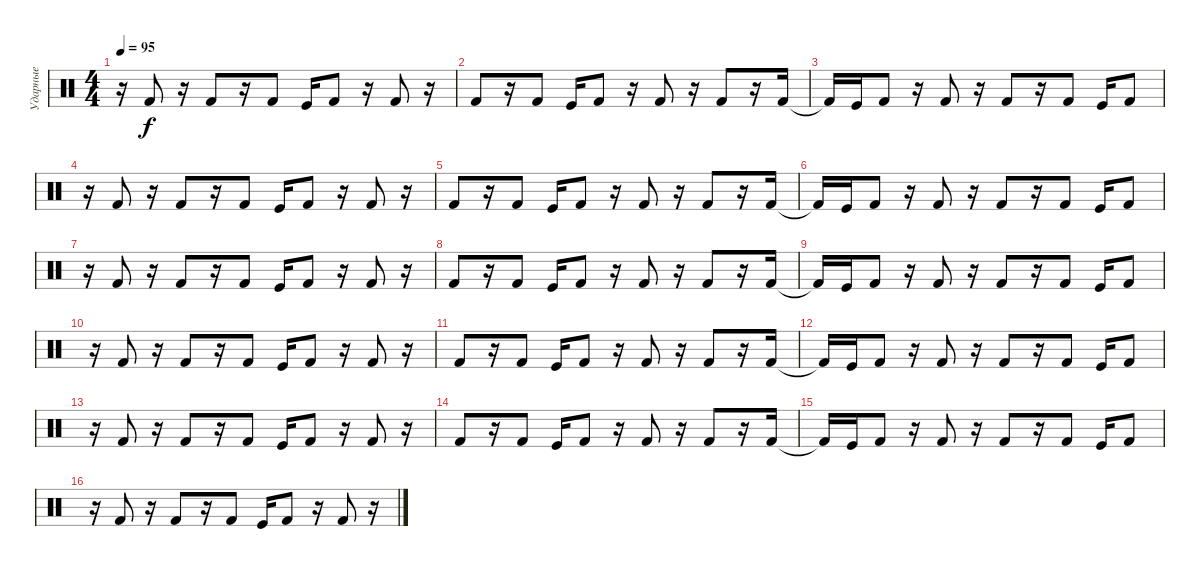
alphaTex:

\track ("Ударные" "Ударные") {instrument percussion}
\staff {score}
\articulation defaults
\ts (4 4)
\tempo 95
\clef neutral
\ks c
r.16{dy f} "Kick (hit) 2".8 r.16 "Kick (hit) 2".8 r.16 "Kick (hit) 2".8 "Kick (hit)".16 "Kick (hit) 2".8 r.16 "Kick (hit) 2".8 r.16 |
"Kick (hit) 2".8 r.16 "Kick (hit) 2".8 "Kick (hit)".16 "Kick (hit) 2".8 r.16 "Kick (hit) 2".8 r.16 "Kick (hit) 2".8 r.16 "Kick (hit) 2".16 |
"Kick (hit) 2"{t}.16 "Kick (hit)".16 "Kick (hit) 2".8 r.16 "Kick (hit) 2".8 r.16 "Kick (hit) 2".8 r.16 "Kick (hit) 2".8 "Kick (hit)".16 "Kick (hit) 2".8 |
r.16 "Kick (hit) 2".8 r.16 "Kick (hit) 2".8 r.16 "Kick (hit) 2".8 "Kick (hit)".16 "Kick (hit) 2".8 r.16 "Kick (hit) 2".8 r.16 |
"Kick (hit) 2".8 r.16 "Kick (hit) 2".8 "Kick (hit)".16 "Kick (hit) 2".8 r.16 "Kick (hit) 2".8 r.16 "Kick (hit) 2".8 r.16 "Kick (hit) 2".16 |
"Kick (hit) 2"{t}.16 "Kick (hit)".16 "Kick (hit) 2".8 r.16 "Kick (hit) 2".8 r.16 "Kick (hit) 2".8 r.16 "Kick (hit) 2".8 "Kick (hit)".16 "Kick (hit) 2".8 |
r.16 "Kick (hit) 2".8 r.16 "Kick (hit) 2".8 r.16 "Kick (hit) 2".8 "Kick (hit)".16 "Kick (hit) 2".8 r.16 "Kick (hit) 2".8 r.16 |
"Kick (hit) 2".8 r.16 "Kick (hit) 2".8 "Kick (hit)".16 "Kick (hit) 2".8 r.16 "Kick (hit) 2".8 r.16 "Kick (hit) 2".8 r.16 "Kick (hit) 2".16 |
"Kick (hit) 2"{t}.16 "Kick (hit)".16 "Kick (hit) 2".8 r.16 "Kick (hit) 2".8 r.16 "Kick (hit) 2".8 r.16 "Kick (hit) 2".8 "Kick (hit)".16 "Kick (hit) 2".8 |
r.16 "Kick (hit) 2".8 r.16 "Kick (hit) 2".8 r.16 "Kick (hit) 2".8 "Kick (hit)".16 "Kick (hit) 2".8 r.16 "Kick (hit) 2".8 r.16 |
"Kick (hit) 2".8 r.16 "Kick (hit) 2".8 "Kick (hit)".16 "Kick (hit) 2".8 r.16 "Kick (hit) 2".8 r.16 "Kick (hit) 2".8 r.16 "Kick (hit) 2".16 |
"Kick (hit) 2"{t}.16 "Kick (hit)".16 "Kick (hit) 2".8 r.16 "Kick (hit) 2".8 r.16 "Kick (hit) 2".8 r.16 "Kick (hit) 2".8 "Kick (hit)".16 "Kick (hit) 2".8 |
r.16 "Kick (hit) 2".8 r.16 "Kick (hit) 2".8 r.16 "Kick (hit) 2".8 "Kick (hit)".16 "Kick (hit) 2".8 r.16 "Kick (hit) 2".8 r.16 |
"Kick (hit) 2".8 r.16 "Kick (hit) 2".8 "Kick (hit)".16 "Kick (hit) 2".8 r.16 "Kick (hit) 2".8 r.16 "Kick (hit) 2".8 r.16 "Kick (hit) 2".16 |
"Kick (hit) 2"{t}.16 "Kick (hit)".16 "Kick (hit) 2".8 r.16 "Kick (hit) 2".8 r.16 "Kick (hit) 2".8 r.16 "Kick (hit) 2".8 "Kick (hit)".16 "Kick (hit) 2".8 |
r.16 "Kick (hit) 2".8 r.16 "Kick (hit) 2".8 r.16 "Kick (hit) 2".8 "Kick (hit)".16 "Kick (hit) 2".8 r.16 "Kick (hit) 2".8 r.16
